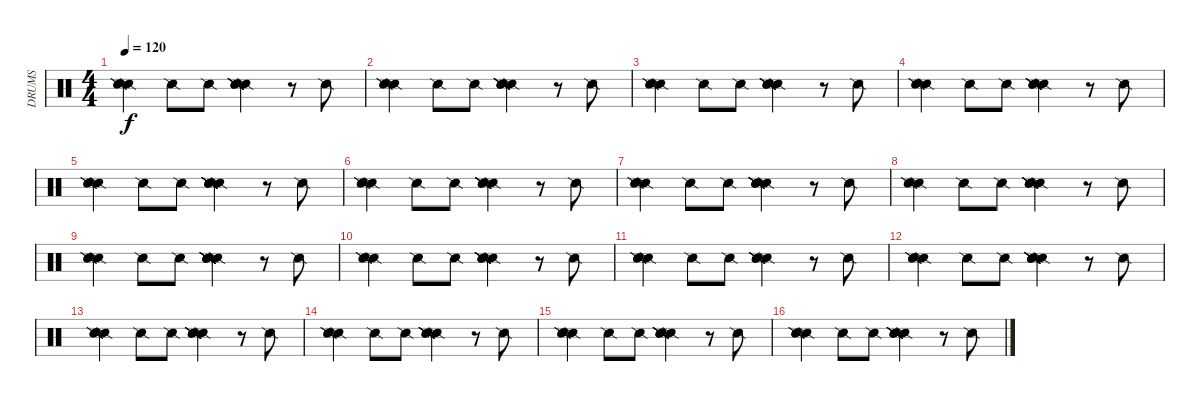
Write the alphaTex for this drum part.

\track ("DRUMS" "DRUMS") {instrument percussion}
\staff {score}
\articulation defaults
\ts (4 4)
\tempo 120
\clef neutral
\ks c
("Snare (side stick) 2" "Snare (side stick) 2" "Snare (side stick) 2" "Electric Snare (hit)").4{dy f volume 10} "Snare (side stick) 2".8{volume 6} "Snare (side stick) 2".8 ("Snare (side stick) 2" "Snare (side stick) 2" "Snare (side stick) 2" "Snare (side stick) 2" "Snare (side stick) 2" "Snare (side stick) 2").4{volume 13} r.8 "Snare (side stick) 2".8 |
("Snare (side stick) 2" "Snare (side stick) 2" "Snare (side stick) 2" "Electric Snare (hit)").4{volume 10} "Snare (side stick) 2".8{volume 6} "Snare (side stick) 2".8 ("Snare (side stick) 2" "Snare (side stick) 2" "Snare (side stick) 2" "Snare (side stick) 2" "Snare (side stick) 2" "Snare (side stick) 2").4{volume 13} r.8 "Snare (side stick) 2".8 |
("Snare (side stick) 2" "Snare (side stick) 2" "Snare (side stick) 2" "Electric Snare (hit)").4{volume 10} "Snare (side stick) 2".8{volume 6} "Snare (side stick) 2".8 ("Snare (side stick) 2" "Snare (side stick) 2" "Snare (side stick) 2" "Snare (side stick) 2" "Snare (side stick) 2" "Snare (side stick) 2").4{volume 13} r.8 "Snare (side stick) 2".8 |
("Snare (side stick) 2" "Snare (side stick) 2" "Snare (side stick) 2" "Electric Snare (hit)").4{volume 10} "Snare (side stick) 2".8{volume 6} "Snare (side stick) 2".8 ("Snare (side stick) 2" "Snare (side stick) 2" "Snare (side stick) 2" "Snare (side stick) 2" "Snare (side stick) 2" "Snare (side stick) 2").4{volume 13} r.8 "Snare (side stick) 2".8 |
("Snare (side stick) 2" "Snare (side stick) 2" "Snare (side stick) 2" "Electric Snare (hit)").4{volume 10} "Snare (side stick) 2".8{volume 6} "Snare (side stick) 2".8 ("Snare (side stick) 2" "Snare (side stick) 2" "Snare (side stick) 2" "Snare (side stick) 2" "Snare (side stick) 2" "Snare (side stick) 2").4{volume 13} r.8 "Snare (side stick) 2".8 |
("Snare (side stick) 2" "Snare (side stick) 2" "Snare (side stick) 2" "Electric Snare (hit)").4{volume 10} "Snare (side stick) 2".8{volume 6} "Snare (side stick) 2".8 ("Snare (side stick) 2" "Snare (side stick) 2" "Snare (side stick) 2" "Snare (side stick) 2" "Snare (side stick) 2" "Snare (side stick) 2").4{volume 13} r.8 "Snare (side stick) 2".8 |
("Snare (side stick) 2" "Snare (side stick) 2" "Snare (side stick) 2" "Electric Snare (hit)").4{volume 10} "Snare (side stick) 2".8{volume 6} "Snare (side stick) 2".8 ("Snare (side stick) 2" "Snare (side stick) 2" "Snare (side stick) 2" "Snare (side stick) 2" "Snare (side stick) 2" "Snare (side stick) 2").4{volume 13} r.8 "Snare (side stick) 2".8 |
("Snare (side stick) 2" "Snare (side stick) 2" "Snare (side stick) 2" "Electric Snare (hit)").4{volume 10} "Snare (side stick) 2".8{volume 6} "Snare (side stick) 2".8 ("Snare (side stick) 2" "Snare (side stick) 2" "Snare (side stick) 2" "Snare (side stick) 2" "Snare (side stick) 2" "Snare (side stick) 2").4{volume 13} r.8 "Snare (side stick) 2".8 |
("Snare (side stick) 2" "Snare (side stick) 2" "Snare (side stick) 2" "Electric Snare (hit)").4{volume 10} "Snare (side stick) 2".8{volume 6} "Snare (side stick) 2".8 ("Snare (side stick) 2" "Snare (side stick) 2" "Snare (side stick) 2" "Snare (side stick) 2" "Snare (side stick) 2" "Snare (side stick) 2").4{volume 13} r.8 "Snare (side stick) 2".8 |
("Snare (side stick) 2" "Snare (side stick) 2" "Snare (side stick) 2" "Electric Snare (hit)").4{volume 10} "Snare (side stick) 2".8{volume 6} "Snare (side stick) 2".8 ("Snare (side stick) 2" "Snare (side stick) 2" "Snare (side stick) 2" "Snare (side stick) 2" "Snare (side stick) 2" "Snare (side stick) 2").4{volume 13} r.8 "Snare (side stick) 2".8 |
("Snare (side stick) 2" "Snare (side stick) 2" "Snare (side stick) 2" "Electric Snare (hit)").4{volume 10} "Snare (side stick) 2".8{volume 6} "Snare (side stick) 2".8 ("Snare (side stick) 2" "Snare (side stick) 2" "Snare (side stick) 2" "Snare (side stick) 2" "Snare (side stick) 2" "Snare (side stick) 2").4{volume 13} r.8 "Snare (side stick) 2".8 |
("Snare (side stick) 2" "Snare (side stick) 2" "Snare (side stick) 2" "Electric Snare (hit)").4{volume 10} "Snare (side stick) 2".8{volume 6} "Snare (side stick) 2".8 ("Snare (side stick) 2" "Snare (side stick) 2" "Snare (side stick) 2" "Snare (side stick) 2" "Snare (side stick) 2" "Snare (side stick) 2").4{volume 13} r.8 "Snare (side stick) 2".8 |
("Snare (side stick) 2" "Snare (side stick) 2" "Snare (side stick) 2" "Electric Snare (hit)").4{volume 10} "Snare (side stick) 2".8{volume 6} "Snare (side stick) 2".8 ("Snare (side stick) 2" "Snare (side stick) 2" "Snare (side stick) 2" "Snare (side stick) 2" "Snare (side stick) 2" "Snare (side stick) 2").4{volume 13} r.8 "Snare (side stick) 2".8 |
("Snare (side stick) 2" "Snare (side stick) 2" "Snare (side stick) 2" "Electric Snare (hit)").4{volume 10} "Snare (side stick) 2".8{volume 6} "Snare (side stick) 2".8 ("Snare (side stick) 2" "Snare (side stick) 2" "Snare (side stick) 2" "Snare (side stick) 2" "Snare (side stick) 2" "Snare (side stick) 2").4{volume 13} r.8 "Snare (side stick) 2".8 |
("Snare (side stick) 2" "Snare (side stick) 2" "Snare (side stick) 2" "Electric Snare (hit)").4{volume 10} "Snare (side stick) 2".8{volume 6} "Snare (side stick) 2".8 ("Snare (side stick) 2" "Snare (side stick) 2" "Snare (side stick) 2" "Snare (side stick) 2" "Snare (side stick) 2" "Snare (side stick) 2").4{volume 13} r.8 "Snare (side stick) 2".8 |
("Snare (side stick) 2" "Snare (side stick) 2" "Snare (side stick) 2" "Electric Snare (hit)").4{volume 10} "Snare (side stick) 2".8{volume 6} "Snare (side stick) 2".8 ("Snare (side stick) 2" "Snare (side stick) 2" "Snare (side stick) 2" "Snare (side stick) 2" "Snare (side stick) 2" "Snare (side stick) 2").4{volume 13} r.8 "Snare (side stick) 2".8
